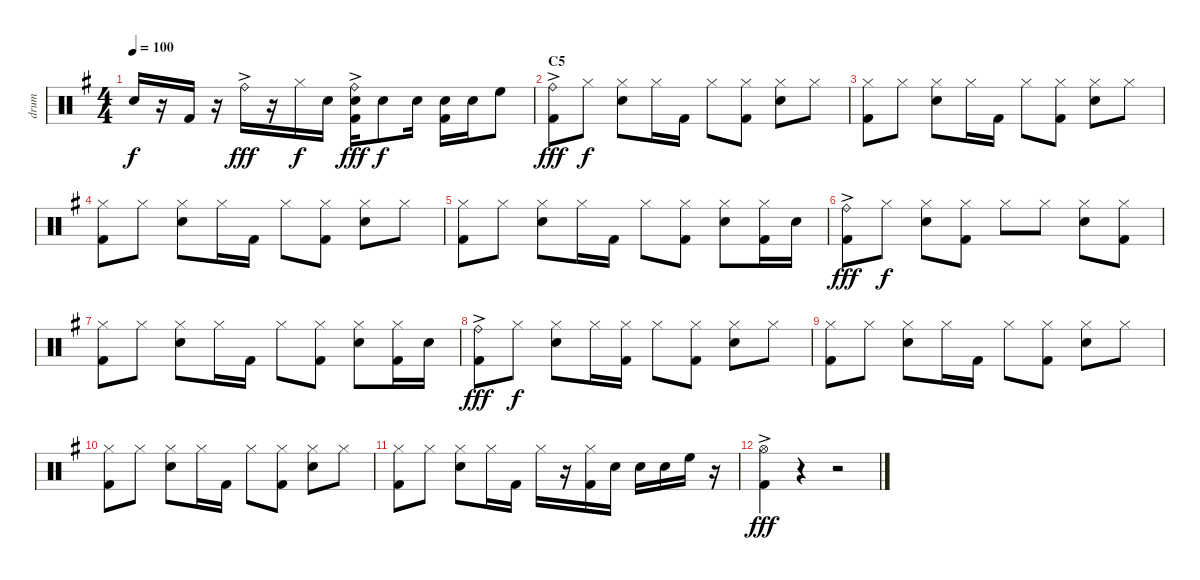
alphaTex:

\track ("drum" "drum") {instrument percussion}
\staff {score}
\articulation defaults
\ts (4 4)
\tempo 100
\clef neutral
\ks g "Snare (hit) 2".16{dy f}
r.16 "Kick (hit) 2".16 r.16 "Ride (bell)"{ac}.16{dy fff} r.16 "Hi-Hat (closed)".16{dy f} "Snare (hit) 2".16 ("Ride (bell)"{ac} "Snare (hit) 2" "Kick (hit) 2").16{dy fff} "Snare (hit) 2".8{dy f} "Snare (hit) 2".16 ("Snare (hit) 2" "Kick (hit) 2").16 "Snare (hit) 2".16 "High Floor Tom (hit)".8 |
\section ("" "C5")
("Ride (bell)"{ac} "Kick (hit) 2").8{dy fff} "Hi-Hat (closed)".8{dy f} ("Hi-Hat (closed)" "Snare (hit) 2").8 "Hi-Hat (closed)".16 "Kick (hit) 2".16 "Hi-Hat (closed)".8 ("Hi-Hat (closed)" "Kick (hit) 2").8 ("Hi-Hat (closed)" "Snare (hit) 2").8 "Hi-Hat (closed)".8 |
("Hi-Hat (closed)" "Kick (hit) 2").8 "Hi-Hat (closed)".8 ("Hi-Hat (closed)" "Snare (hit) 2").8 "Hi-Hat (closed)".16 "Kick (hit) 2".16 "Hi-Hat (closed)".8 ("Hi-Hat (closed)" "Kick (hit) 2").8 ("Hi-Hat (closed)" "Snare (hit) 2").8 "Hi-Hat (closed)".8 |
("Hi-Hat (closed)" "Kick (hit) 2").8 "Hi-Hat (closed)".8 ("Hi-Hat (closed)" "Snare (hit) 2").8 "Hi-Hat (closed)".16 "Kick (hit) 2".16 "Hi-Hat (closed)".8 ("Hi-Hat (closed)" "Kick (hit) 2").8 ("Hi-Hat (closed)" "Snare (hit) 2").8 "Hi-Hat (closed)".8 |
("Hi-Hat (closed)" "Kick (hit) 2").8 "Hi-Hat (closed)".8 ("Hi-Hat (closed)" "Snare (hit) 2").8 "Hi-Hat (closed)".16 "Kick (hit) 2".16 "Hi-Hat (closed)".8 ("Hi-Hat (closed)" "Kick (hit) 2").8 ("Hi-Hat (closed)" "Snare (hit) 2").8 ("Hi-Hat (closed)" "Kick (hit) 2").16 "Snare (hit) 2".16 |
("Ride (bell)"{ac} "Kick (hit) 2").8{dy fff} "Hi-Hat (closed)".8{dy f} ("Hi-Hat (closed)" "Snare (hit) 2").8 ("Hi-Hat (closed)" "Kick (hit) 2").8 "Hi-Hat (closed)".8 "Hi-Hat (closed)".8 ("Hi-Hat (closed)" "Snare (hit) 2").8 ("Hi-Hat (closed)" "Kick (hit) 2").8 |
("Hi-Hat (closed)" "Kick (hit) 2").8 "Hi-Hat (closed)".8 ("Hi-Hat (closed)" "Snare (hit) 2").8 "Hi-Hat (closed)".16 "Kick (hit) 2".16 "Hi-Hat (closed)".8 ("Hi-Hat (closed)" "Kick (hit) 2").8 ("Hi-Hat (closed)" "Snare (hit) 2").8 ("Hi-Hat (closed)" "Kick (hit) 2").16 "Snare (hit) 2".16 |
("Ride (bell)"{ac} "Kick (hit) 2").8{dy fff} "Hi-Hat (closed)".8{dy f} ("Hi-Hat (closed)" "Snare (hit) 2").8 "Hi-Hat (closed)".16 ("Hi-Hat (closed)" "Kick (hit) 2").16 "Hi-Hat (closed)".8 ("Hi-Hat (closed)" "Kick (hit) 2").8 ("Hi-Hat (closed)" "Snare (hit) 2").8 "Hi-Hat (closed)".8 |
("Hi-Hat (closed)" "Kick (hit) 2").8 "Hi-Hat (closed)".8 ("Hi-Hat (closed)" "Snare (hit) 2").8 "Hi-Hat (closed)".16 "Kick (hit) 2".16 "Hi-Hat (closed)".8 ("Hi-Hat (closed)" "Kick (hit) 2").8 ("Hi-Hat (closed)" "Snare (hit) 2").8 "Hi-Hat (closed)".8 |
("Hi-Hat (closed)" "Kick (hit) 2").8 "Hi-Hat (closed)".8 ("Hi-Hat (closed)" "Snare (hit) 2").8 "Hi-Hat (closed)".16 "Kick (hit) 2".16 "Hi-Hat (closed)".8 ("Hi-Hat (closed)" "Kick (hit) 2").8 ("Hi-Hat (closed)" "Snare (hit) 2").8 "Hi-Hat (closed)".8 |
("Hi-Hat (closed)" "Kick (hit) 2").8 "Hi-Hat (closed)".8 ("Hi-Hat (closed)" "Snare (hit) 2").8 "Hi-Hat (closed)".16 "Kick (hit) 2".16 "Hi-Hat (closed)".16 r.16 ("Hi-Hat (closed)" "Kick (hit) 2").16 "Snare (hit) 2".16 "Snare (hit) 2".16 "Snare (hit) 2".16 "High Floor Tom (hit)".16 r.16 |
("Hi-Hat (open)"{ac} "Kick (hit) 2").4{dy fff} r.4 r.2
